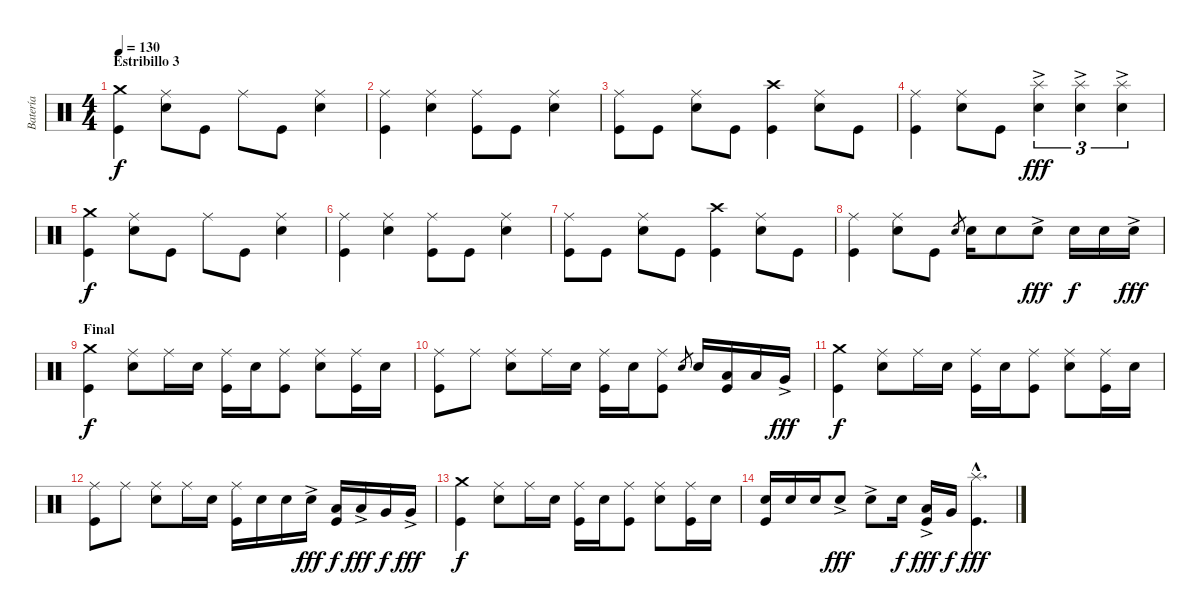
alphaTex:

\track ("Batería" "Batería") {instrument percussion}
\staff {score}
\articulation defaults
\ts (4 4)
\section ("" "Estribillo 3")
\tempo 130
\clef neutral
\ks c
("Kick (hit)" "Crash medium (hit)").4{dy f} ("Electric Snare (hit)" "Ride (middle)").8 "Kick (hit)".8 "Ride (middle)".8 "Kick (hit)".8 ("Electric Snare (hit)" "Ride (middle)").4 |
("Kick (hit)" "Ride (middle)").4 ("Electric Snare (hit)" "Ride (middle)").4 ("Kick (hit)" "Ride (middle)").8 "Kick (hit)".8 ("Electric Snare (hit)" "Ride (middle)").4 |
("Kick (hit)" "Ride (middle)").8 "Kick (hit)".8 ("Electric Snare (hit)" "Ride (middle)").8 "Kick (hit)".8 ("Kick (hit)" "Crash high (hit)").4 ("Electric Snare (hit)" "Ride (middle)").8 "Kick (hit)".8 |
("Kick (hit)" "Ride (middle)").4 ("Electric Snare (hit)" "Ride (middle)").8 "Kick (hit)".8 ("Electric Snare (hit)" "Splash (hit)"{ac}).4{tu (3 2) dy fff} ("Electric Snare (hit)" "Splash (hit)"{ac}).4{tu (3 2)} ("Electric Snare (hit)" "Splash (hit)"{ac}).4{tu (3 2)} |
("Kick (hit)" "Crash medium (hit)").4{dy f} ("Electric Snare (hit)" "Ride (middle)").8 "Kick (hit)".8 "Ride (middle)".8 "Kick (hit)".8 ("Electric Snare (hit)" "Ride (middle)").4 |
("Kick (hit)" "Ride (middle)").4 ("Electric Snare (hit)" "Ride (middle)").4 ("Kick (hit)" "Ride (middle)").8 "Kick (hit)".8 ("Electric Snare (hit)" "Ride (middle)").4 |
("Kick (hit)" "Ride (middle)").8 "Kick (hit)".8 ("Electric Snare (hit)" "Ride (middle)").8 "Kick (hit)".8 ("Kick (hit)" "Crash high (hit)").4 ("Electric Snare (hit)" "Ride (middle)").8 "Kick (hit)".8 |
("Kick (hit)" "Ride (middle)").4 ("Electric Snare (hit)" "Ride (middle)").8 "Kick (hit)".8 "Electric Snare (hit)".8{gr} "Electric Snare (hit)".16 "Electric Snare (hit)".8 "Electric Snare (hit)"{ac}.8{dy fff} "Electric Snare (hit)".16{dy f} "Electric Snare (hit)".16 "Electric Snare (hit)"{ac}.16{dy fff} |
\section ("" "Final")
("Kick (hit)" "Crash medium (hit)").4{dy f} ("Electric Snare (hit)" "Ride (middle)").8 "Ride (middle)".16 "Electric Snare (hit)".16 ("Kick (hit)" "Ride (middle)").16 "Electric Snare (hit)".16 ("Kick (hit)" "Ride (middle)").8 ("Electric Snare (hit)" "Ride (middle)").8 ("Kick (hit)" "Ride (middle)").16 "Electric Snare (hit)".16 |
("Kick (hit)" "Ride (middle)").8 "Ride (middle)".8 ("Electric Snare (hit)" "Ride (middle)").8 "Ride (middle)".16 "Electric Snare (hit)".16 ("Kick (hit)" "Ride (middle)").16 "Electric Snare (hit)".16 ("Kick (hit)" "Ride (middle)").8 "Electric Snare (hit)".8{gr} "Electric Snare (hit)".16 ("Kick (hit)" "Low Tom (hit)").16 "Low Tom (hit)".16 "Very Low Tom (hit)"{ac}.16{dy fff} |
("Kick (hit)" "Crash medium (hit)").4{dy f} ("Electric Snare (hit)" "Ride (middle)").8 "Ride (middle)".16 "Electric Snare (hit)".16 ("Kick (hit)" "Ride (middle)").16 "Electric Snare (hit)".16 ("Kick (hit)" "Ride (middle)").8 ("Electric Snare (hit)" "Ride (middle)").8 ("Kick (hit)" "Ride (middle)").16 "Electric Snare (hit)".16 |
("Kick (hit)" "Ride (middle)").8 "Ride (middle)".8 ("Electric Snare (hit)" "Ride (middle)").8 "Ride (middle)".16 "Electric Snare (hit)".16 ("Kick (hit)" "Ride (middle)").16 "Electric Snare (hit)".16 "Electric Snare (hit)".16 "Electric Snare (hit)"{ac}.16{dy fff} ("Kick (hit)" "Low Tom (hit)").16{dy f} "Low Tom (hit)"{ac}.16{dy fff} "Very Low Tom (hit)".16{dy f} "Very Low Tom (hit)"{ac}.16{dy fff} |
("Kick (hit)" "Crash medium (hit)").4{dy f} ("Electric Snare (hit)" "Ride (middle)").8 "Ride (middle)".16 "Electric Snare (hit)".16 ("Kick (hit)" "Ride (middle)").16 "Electric Snare (hit)".16 ("Kick (hit)" "Ride (middle)").8 ("Electric Snare (hit)" "Ride (middle)").8 ("Kick (hit)" "Ride (middle)").16 "Electric Snare (hit)".16 |
("Kick (hit)" "Electric Snare (hit)").16 "Electric Snare (hit)".16 "Electric Snare (hit)".16 "Electric Snare (hit)"{ac}.8{dy fff} "Electric Snare (hit)"{ac}.8 "Electric Snare (hit)".16{dy f} ("Kick (hit)" "Low Tom (hit)"{ac}).16{dy fff} "Very Low Tom (hit)".16{dy f} ("Kick (hit)"{hac} "Splash (hit)"{hac}).4{d dy fff}
